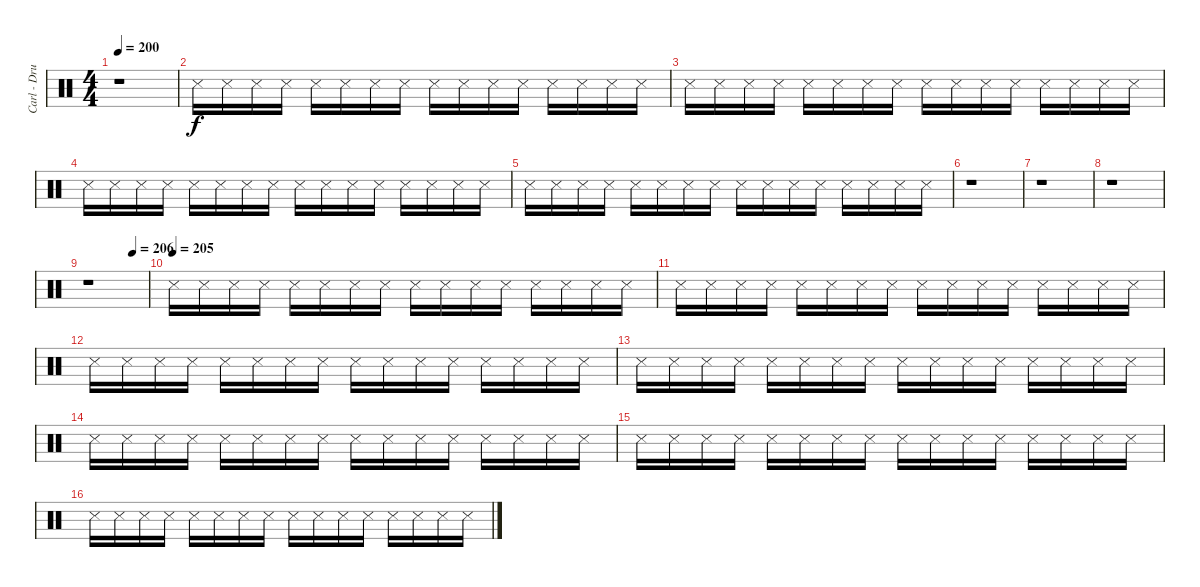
\track ("Carl - Drums" "Carl - Dru") {instrument percussion}
\staff {score}
\articulation defaults
\ts (4 4)
\tempo 200
\clef neutral
\ks c
r.1{dy f} |
"Metronome (hit)".16 "Metronome (hit)".16 "Metronome (hit)".16 "Metronome (hit)".16 "Metronome (hit)".16 "Metronome (hit)".16 "Metronome (hit)".16 "Metronome (hit)".16 "Metronome (hit)".16 "Metronome (hit)".16 "Metronome (hit)".16 "Metronome (hit)".16 "Metronome (hit)".16 "Metronome (hit)".16 "Metronome (hit)".16 "Metronome (hit)".16 |
"Metronome (hit)".16 "Metronome (hit)".16 "Metronome (hit)".16 "Metronome (hit)".16 "Metronome (hit)".16 "Metronome (hit)".16 "Metronome (hit)".16 "Metronome (hit)".16 "Metronome (hit)".16 "Metronome (hit)".16 "Metronome (hit)".16 "Metronome (hit)".16 "Metronome (hit)".16 "Metronome (hit)".16 "Metronome (hit)".16 "Metronome (hit)".16 |
"Metronome (hit)".16 "Metronome (hit)".16 "Metronome (hit)".16 "Metronome (hit)".16 "Metronome (hit)".16 "Metronome (hit)".16 "Metronome (hit)".16 "Metronome (hit)".16 "Metronome (hit)".16 "Metronome (hit)".16 "Metronome (hit)".16 "Metronome (hit)".16 "Metronome (hit)".16 "Metronome (hit)".16 "Metronome (hit)".16 "Metronome (hit)".16 |
"Metronome (hit)".16 "Metronome (hit)".16 "Metronome (hit)".16 "Metronome (hit)".16 "Metronome (hit)".16 "Metronome (hit)".16 "Metronome (hit)".16 "Metronome (hit)".16 "Metronome (hit)".16 "Metronome (hit)".16 "Metronome (hit)".16 "Metronome (hit)".16 "Metronome (hit)".16 "Metronome (hit)".16 "Metronome (hit)".16 "Metronome (hit)".16 |
r.1 |
r.1 |
r.1 |
\tempo (206 0.75)
r.1 |
\tempo (205)
"Metronome (hit)".16 "Metronome (hit)".16 "Metronome (hit)".16 "Metronome (hit)".16 "Metronome (hit)".16 "Metronome (hit)".16 "Metronome (hit)".16 "Metronome (hit)".16 "Metronome (hit)".16 "Metronome (hit)".16 "Metronome (hit)".16 "Metronome (hit)".16 "Metronome (hit)".16 "Metronome (hit)".16 "Metronome (hit)".16 "Metronome (hit)".16 |
"Metronome (hit)".16 "Metronome (hit)".16 "Metronome (hit)".16 "Metronome (hit)".16 "Metronome (hit)".16 "Metronome (hit)".16 "Metronome (hit)".16 "Metronome (hit)".16 "Metronome (hit)".16 "Metronome (hit)".16 "Metronome (hit)".16 "Metronome (hit)".16 "Metronome (hit)".16 "Metronome (hit)".16 "Metronome (hit)".16 "Metronome (hit)".16 |
"Metronome (hit)".16 "Metronome (hit)".16 "Metronome (hit)".16 "Metronome (hit)".16 "Metronome (hit)".16 "Metronome (hit)".16 "Metronome (hit)".16 "Metronome (hit)".16 "Metronome (hit)".16 "Metronome (hit)".16 "Metronome (hit)".16 "Metronome (hit)".16 "Metronome (hit)".16 "Metronome (hit)".16 "Metronome (hit)".16 "Metronome (hit)".16 |
"Metronome (hit)".16 "Metronome (hit)".16 "Metronome (hit)".16 "Metronome (hit)".16 "Metronome (hit)".16 "Metronome (hit)".16 "Metronome (hit)".16 "Metronome (hit)".16 "Metronome (hit)".16 "Metronome (hit)".16 "Metronome (hit)".16 "Metronome (hit)".16 "Metronome (hit)".16 "Metronome (hit)".16 "Metronome (hit)".16 "Metronome (hit)".16 |
"Metronome (hit)".16 "Metronome (hit)".16 "Metronome (hit)".16 "Metronome (hit)".16 "Metronome (hit)".16 "Metronome (hit)".16 "Metronome (hit)".16 "Metronome (hit)".16 "Metronome (hit)".16 "Metronome (hit)".16 "Metronome (hit)".16 "Metronome (hit)".16 "Metronome (hit)".16 "Metronome (hit)".16 "Metronome (hit)".16 "Metronome (hit)".16 |
"Metronome (hit)".16 "Metronome (hit)".16 "Metronome (hit)".16 "Metronome (hit)".16 "Metronome (hit)".16 "Metronome (hit)".16 "Metronome (hit)".16 "Metronome (hit)".16 "Metronome (hit)".16 "Metronome (hit)".16 "Metronome (hit)".16 "Metronome (hit)".16 "Metronome (hit)".16 "Metronome (hit)".16 "Metronome (hit)".16 "Metronome (hit)".16 |
"Metronome (hit)".16 "Metronome (hit)".16 "Metronome (hit)".16 "Metronome (hit)".16 "Metronome (hit)".16 "Metronome (hit)".16 "Metronome (hit)".16 "Metronome (hit)".16 "Metronome (hit)".16 "Metronome (hit)".16 "Metronome (hit)".16 "Metronome (hit)".16 "Metronome (hit)".16 "Metronome (hit)".16 "Metronome (hit)".16 "Metronome (hit)".16
